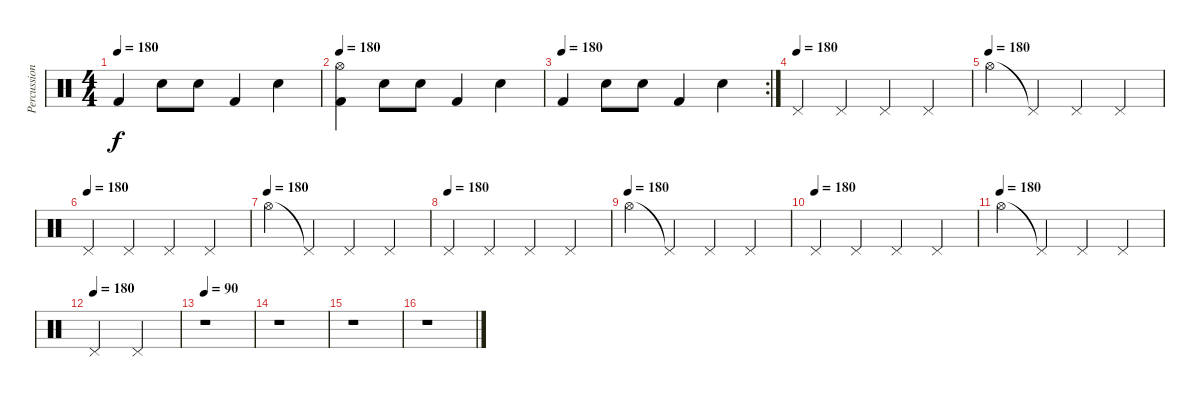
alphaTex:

\track ("Percussions" "Percussion") {instrument percussion}
\staff {score}
\articulation defaults
\ts (4 4)
\tempo 180
\clef neutral
\ks c "Kick (hit) 2".4{dy f} "Hand Clap (hit)".8 "Hand Clap (hit)".8 "Kick (hit) 2".4 "Hand Clap (hit)".4
|
\tempo 180
("Kick (hit) 2" "Hi-Hat (open)").4 "Hand Clap (hit)".8 "Hand Clap (hit)".8 "Kick (hit) 2".4 "Hand Clap (hit)".4 |
\rc 2
\tempo (180)
"Kick (hit) 2".4 "Hand Clap (hit)".8 "Hand Clap (hit)".8 "Kick (hit) 2".4 "Hand Clap (hit)".4 |
\tempo (180)
"Pedal Hi-Hat (hit)".4 "Pedal Hi-Hat (hit)".4 "Pedal Hi-Hat (hit)".4 "Pedal Hi-Hat (hit)".4 |
\tempo (180)
"Hi-Hat (open)".4 "Pedal Hi-Hat (hit)"{t}.4 "Pedal Hi-Hat (hit)".4 "Pedal Hi-Hat (hit)".4 |
\tempo (180)
"Pedal Hi-Hat (hit)".4 "Pedal Hi-Hat (hit)".4 "Pedal Hi-Hat (hit)".4 "Pedal Hi-Hat (hit)".4 |
\tempo (180)
"Hi-Hat (open)".4 "Pedal Hi-Hat (hit)"{t}.4 "Pedal Hi-Hat (hit)".4 "Pedal Hi-Hat (hit)".4 |
\tempo (180)
"Pedal Hi-Hat (hit)".4 "Pedal Hi-Hat (hit)".4 "Pedal Hi-Hat (hit)".4 "Pedal Hi-Hat (hit)".4 |
\tempo (180)
"Hi-Hat (open)".4 "Pedal Hi-Hat (hit)"{t}.4 "Pedal Hi-Hat (hit)".4 "Pedal Hi-Hat (hit)".4 |
\tempo (180)
"Pedal Hi-Hat (hit)".4 "Pedal Hi-Hat (hit)".4 "Pedal Hi-Hat (hit)".4 "Pedal Hi-Hat (hit)".4 |
\tempo (180)
"Hi-Hat (open)".4 "Pedal Hi-Hat (hit)"{t}.4 "Pedal Hi-Hat (hit)".4 "Pedal Hi-Hat (hit)".4 |
\tempo (180)
"Pedal Hi-Hat (hit)".2 "Pedal Hi-Hat (hit)".2 |
\tempo 90
r.1 |
r.1 |
r.1 |
r.1
